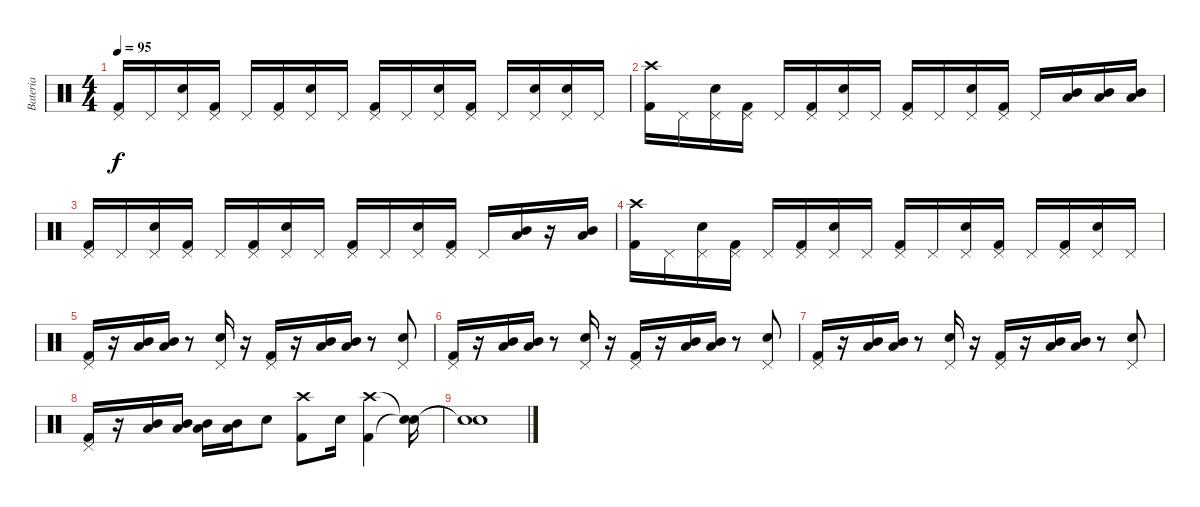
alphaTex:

\track ("Bateria" "Bateria") {instrument percussion}
\staff {score}
\articulation defaults
\ts (4 4)
\tempo 95
\clef neutral
\ks c
("Pedal Hi-Hat (hit)" "Kick (hit) 2").16{dy f} "Pedal Hi-Hat (hit)".16 ("Pedal Hi-Hat (hit)" "Electric Snare (hit)").16 ("Pedal Hi-Hat (hit)" "Kick (hit) 2").16 "Pedal Hi-Hat (hit)".16 ("Pedal Hi-Hat (hit)" "Kick (hit) 2").16 ("Pedal Hi-Hat (hit)" "Electric Snare (hit)").16 "Pedal Hi-Hat (hit)".16 ("Pedal Hi-Hat (hit)" "Kick (hit) 2").16 "Pedal Hi-Hat (hit)".16 ("Pedal Hi-Hat (hit)" "Electric Snare (hit)").16 ("Pedal Hi-Hat (hit)" "Kick (hit) 2").16 "Pedal Hi-Hat (hit)".16 ("Pedal Hi-Hat (hit)" "Electric Snare (hit)").16 ("Pedal Hi-Hat (hit)" "Electric Snare (hit)").16 "Pedal Hi-Hat (hit)".16 |
("Crash high (hit)" "Kick (hit) 2").16 "Pedal Hi-Hat (hit)".16 ("Pedal Hi-Hat (hit)" "Electric Snare (hit)").16 ("Pedal Hi-Hat (hit)" "Kick (hit) 2").16 "Pedal Hi-Hat (hit)".16 ("Pedal Hi-Hat (hit)" "Kick (hit) 2").16 ("Pedal Hi-Hat (hit)" "Electric Snare (hit)").16 "Pedal Hi-Hat (hit)".16 ("Pedal Hi-Hat (hit)" "Kick (hit) 2").16 "Pedal Hi-Hat (hit)".16 ("Pedal Hi-Hat (hit)" "Electric Snare (hit)").16 ("Pedal Hi-Hat (hit)" "Kick (hit) 2").16 "Pedal Hi-Hat (hit)".16 ("Mid Tom (hit)" "Low Tom (hit)").16 ("Mid Tom (hit)" "Low Tom (hit)").16 ("Mid Tom (hit)" "Low Tom (hit)").16 |
("Pedal Hi-Hat (hit)" "Kick (hit) 2").16 "Pedal Hi-Hat (hit)".16 ("Pedal Hi-Hat (hit)" "Electric Snare (hit)").16 ("Pedal Hi-Hat (hit)" "Kick (hit) 2").16 "Pedal Hi-Hat (hit)".16 ("Pedal Hi-Hat (hit)" "Kick (hit) 2").16 ("Pedal Hi-Hat (hit)" "Electric Snare (hit)").16 "Pedal Hi-Hat (hit)".16 ("Pedal Hi-Hat (hit)" "Kick (hit) 2").16 "Pedal Hi-Hat (hit)".16 ("Pedal Hi-Hat (hit)" "Electric Snare (hit)").16 ("Pedal Hi-Hat (hit)" "Kick (hit) 2").16 "Pedal Hi-Hat (hit)".16 ("Mid Tom (hit)" "Low Tom (hit)").16 r.16 ("Mid Tom (hit)" "Low Tom (hit)").16 |
("Crash high (hit)" "Kick (hit) 2").16 "Pedal Hi-Hat (hit)".16 ("Pedal Hi-Hat (hit)" "Electric Snare (hit)").16 ("Pedal Hi-Hat (hit)" "Kick (hit) 2").16 "Pedal Hi-Hat (hit)".16 ("Pedal Hi-Hat (hit)" "Kick (hit) 2").16 ("Pedal Hi-Hat (hit)" "Electric Snare (hit)").16 "Pedal Hi-Hat (hit)".16 ("Pedal Hi-Hat (hit)" "Kick (hit) 2").16 "Pedal Hi-Hat (hit)".16 ("Pedal Hi-Hat (hit)" "Electric Snare (hit)").16 ("Pedal Hi-Hat (hit)" "Kick (hit) 2").16 "Pedal Hi-Hat (hit)".16 ("Pedal Hi-Hat (hit)" "Kick (hit) 2").16 ("Pedal Hi-Hat (hit)" "Electric Snare (hit)").16 "Pedal Hi-Hat (hit)".16 |
("Pedal Hi-Hat (hit)" "Kick (hit) 2").16 r.16 ("Mid Tom (hit)" "Low Tom (hit)").16 ("Mid Tom (hit)" "Low Tom (hit)").16 r.8 ("Pedal Hi-Hat (hit)" "Electric Snare (hit)").16 r.16 ("Pedal Hi-Hat (hit)" "Kick (hit) 2").16 r.16 ("Mid Tom (hit)" "Low Tom (hit)").16 ("Mid Tom (hit)" "Low Tom (hit)").16 r.8 ("Pedal Hi-Hat (hit)" "Electric Snare (hit)").8 |
("Pedal Hi-Hat (hit)" "Kick (hit) 2").16 r.16 ("Mid Tom (hit)" "Low Tom (hit)").16 ("Mid Tom (hit)" "Low Tom (hit)").16 r.8 ("Pedal Hi-Hat (hit)" "Electric Snare (hit)").16 r.16 ("Pedal Hi-Hat (hit)" "Kick (hit) 2").16 r.16 ("Mid Tom (hit)" "Low Tom (hit)").16 ("Mid Tom (hit)" "Low Tom (hit)").16 r.8 ("Pedal Hi-Hat (hit)" "Electric Snare (hit)").8 |
("Pedal Hi-Hat (hit)" "Kick (hit) 2").16 r.16 ("Mid Tom (hit)" "Low Tom (hit)").16 ("Mid Tom (hit)" "Low Tom (hit)").16 r.8 ("Pedal Hi-Hat (hit)" "Electric Snare (hit)").16 r.16 ("Pedal Hi-Hat (hit)" "Kick (hit) 2").16 r.16 ("Mid Tom (hit)" "Low Tom (hit)").16 ("Mid Tom (hit)" "Low Tom (hit)").16 r.8 ("Pedal Hi-Hat (hit)" "Electric Snare (hit)").8 |
("Pedal Hi-Hat (hit)" "Kick (hit) 2").16 r.16 ("Mid Tom (hit)" "Low Tom (hit)").16 ("Mid Tom (hit)" "Low Tom (hit)").16 ("Mid Tom (hit)" "Low Tom (hit)").16 ("Mid Tom (hit)" "Low Tom (hit)").16 "Electric Snare (hit)".8 ("Crash high (hit)" "Kick (hit) 2").8 "Electric Snare (hit)".16 ("Crash high (hit)" "Kick (hit) 2").4 ("Snare (hit)"{t} "Snare (hit)"{t}).16 |
("Snare (hit)"{t} "Snare (hit)"{t}).1
